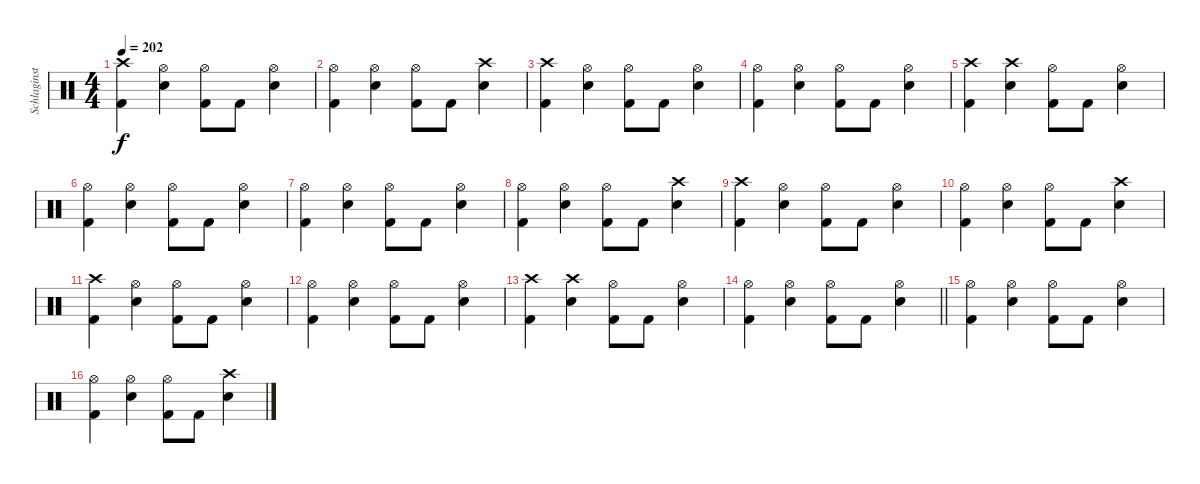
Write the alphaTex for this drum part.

\track ("Schlaginstrumente - Auswahl" "Schlaginst") {instrument percussion bank 1}
\staff {score}
\articulation defaults
\ts (4 4)
\tempo 202
\clef neutral
\ks c
("Crash high (hit)" "Kick (hit) 2").4{dy f} ("Hi-Hat (open)" "Snare (hit) 2").4 ("Hi-Hat (open)" "Kick (hit) 2").8 "Kick (hit) 2".8 ("Hi-Hat (open)" "Snare (hit) 2").4 |
("Hi-Hat (open)" "Kick (hit) 2").4 ("Hi-Hat (open)" "Snare (hit) 2").4 ("Hi-Hat (open)" "Kick (hit) 2").8 "Kick (hit) 2".8 ("Crash high (hit)" "Snare (hit) 2").4 |
("Crash high (hit)" "Kick (hit) 2").4 ("Hi-Hat (open)" "Snare (hit) 2").4 ("Hi-Hat (open)" "Kick (hit) 2").8 "Kick (hit) 2".8 ("Hi-Hat (open)" "Snare (hit) 2").4 |
("Hi-Hat (open)" "Kick (hit) 2").4 ("Hi-Hat (open)" "Snare (hit) 2").4 ("Hi-Hat (open)" "Kick (hit) 2").8 "Kick (hit) 2".8 ("Hi-Hat (open)" "Snare (hit) 2").4 |
("Crash high (hit)" "Kick (hit) 2").4 ("Crash high (hit)" "Snare (hit) 2").4 ("Hi-Hat (open)" "Kick (hit) 2").8 "Kick (hit) 2".8 ("Hi-Hat (open)" "Snare (hit) 2").4 |
("Hi-Hat (open)" "Kick (hit) 2").4 ("Hi-Hat (open)" "Snare (hit) 2").4 ("Hi-Hat (open)" "Kick (hit) 2").8 "Kick (hit) 2".8 ("Hi-Hat (open)" "Snare (hit) 2").4 |
("Hi-Hat (open)" "Kick (hit) 2").4 ("Hi-Hat (open)" "Snare (hit) 2").4 ("Hi-Hat (open)" "Kick (hit) 2").8 "Kick (hit) 2".8 ("Hi-Hat (open)" "Snare (hit) 2").4 |
("Hi-Hat (open)" "Kick (hit) 2").4 ("Hi-Hat (open)" "Snare (hit) 2").4 ("Hi-Hat (open)" "Kick (hit) 2").8 "Kick (hit) 2".8 ("Crash high (hit)" "Snare (hit) 2").4 |
("Crash high (hit)" "Kick (hit) 2").4 ("Hi-Hat (open)" "Snare (hit) 2").4 ("Hi-Hat (open)" "Kick (hit) 2").8 "Kick (hit) 2".8 ("Hi-Hat (open)" "Snare (hit) 2").4 |
("Hi-Hat (open)" "Kick (hit) 2").4 ("Hi-Hat (open)" "Snare (hit) 2").4 ("Hi-Hat (open)" "Kick (hit) 2").8 "Kick (hit) 2".8 ("Crash high (hit)" "Snare (hit) 2").4 |
("Crash high (hit)" "Kick (hit) 2").4 ("Hi-Hat (open)" "Snare (hit) 2").4 ("Hi-Hat (open)" "Kick (hit) 2").8 "Kick (hit) 2".8 ("Hi-Hat (open)" "Snare (hit) 2").4 |
("Hi-Hat (open)" "Kick (hit) 2").4 ("Hi-Hat (open)" "Snare (hit) 2").4 ("Hi-Hat (open)" "Kick (hit) 2").8 "Kick (hit) 2".8 ("Hi-Hat (open)" "Snare (hit) 2").4 |
("Crash high (hit)" "Kick (hit) 2").4 ("Crash high (hit)" "Snare (hit) 2").4 ("Hi-Hat (open)" "Kick (hit) 2").8 "Kick (hit) 2".8 ("Hi-Hat (open)" "Snare (hit) 2").4 |
\barLineRight lightlight
("Hi-Hat (open)" "Kick (hit) 2").4 ("Hi-Hat (open)" "Snare (hit) 2").4 ("Hi-Hat (open)" "Kick (hit) 2").8 "Kick (hit) 2".8 ("Hi-Hat (open)" "Snare (hit) 2").4 |
\section ("" "")
("Hi-Hat (open)" "Kick (hit) 2").4 ("Hi-Hat (open)" "Snare (hit) 2").4 ("Hi-Hat (open)" "Kick (hit) 2").8 "Kick (hit) 2".8 ("Hi-Hat (open)" "Snare (hit) 2").4 |
("Hi-Hat (open)" "Kick (hit) 2").4 ("Hi-Hat (open)" "Snare (hit) 2").4 ("Hi-Hat (open)" "Kick (hit) 2").8 "Kick (hit) 2".8 ("Crash high (hit)" "Snare (hit) 2").4
